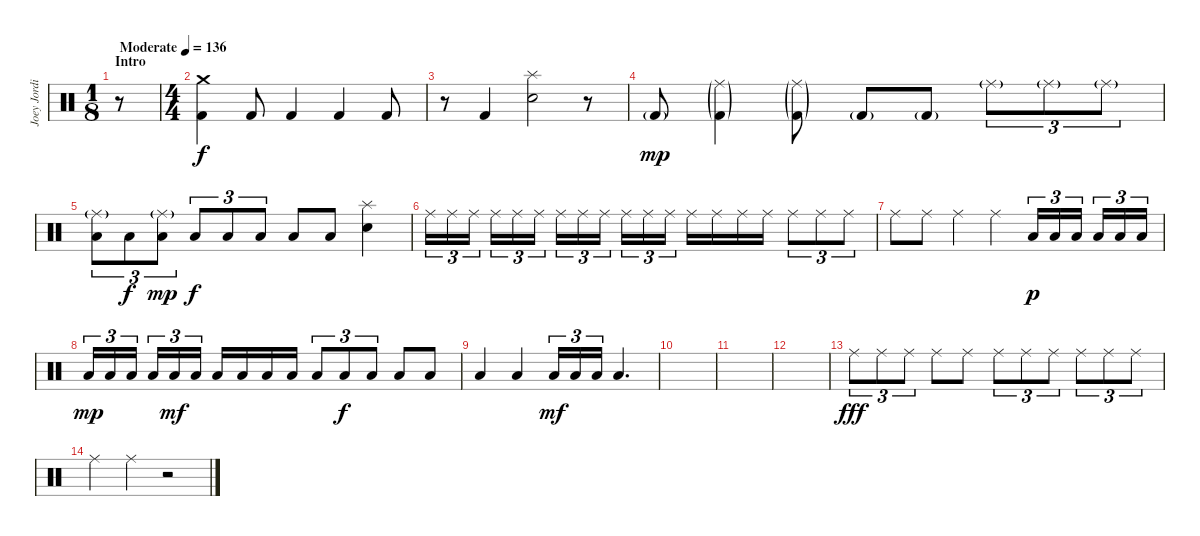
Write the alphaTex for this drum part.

\track ("Joey Jordison" "Joey Jordi") {instrument percussion}
\staff {score}
\articulation defaults
\ts (1 8)
\section ("" "Intro")
\tempo (136 "Moderate")
\clef neutral
\ks c
r.8{dy f} |
\ts (4 4)
("Crash medium (hit)" "Kick (hit) 2").4 "Kick (hit) 2".8 "Kick (hit) 2".4 "Kick (hit) 2".4 "Kick (hit) 2".8 |
r.8 "Kick (hit) 2".4 ("Splash (hit)" "Electric Snare (hit)").2 r.8 |
"Kick (hit) 2"{g}.8{dy mp} ("Ride (middle)"{g} "Kick (hit) 2"{g}).4 ("Ride (middle)"{g} "Kick (hit) 2"{g}).8 "Kick (hit) 2"{g}.8 "Kick (hit) 2"{g}.8 "Ride (middle)"{g}.8{tu (3 2)} "Ride (middle)"{g}.8{tu (3 2)} "Ride (middle)"{g}.8{tu (3 2)} |
("Ride (middle)"{g} "Low Floor Tom (hit)").8{tu (3 2)} "Low Floor Tom (hit)".8{tu (3 2) dy f} ("Ride (middle)"{g} "Low Floor Tom (hit)").8{tu (3 2) dy mp} "Low Floor Tom (hit)".8{tu (3 2) dy f} "Low Floor Tom (hit)".8{tu (3 2)} "Low Floor Tom (hit)".8{tu (3 2)} "Low Floor Tom (hit)".8 "Low Floor Tom (hit)".8 ("Splash (hit)" "Snare (hit) 2").4 |
"Ride (middle)".16{tu (3 2)} "Ride (middle)".16{tu (3 2)} "Ride (middle)".16{tu (3 2) beam splitsecondary} "Ride (middle)".16{tu (3 2)} "Ride (middle)".16{tu (3 2)} "Ride (middle)".16{tu (3 2)} "Ride (middle)".16{tu (3 2)} "Ride (middle)".16{tu (3 2)} "Ride (middle)".16{tu (3 2) beam splitsecondary} "Ride (middle)".16{tu (3 2)} "Ride (middle)".16{tu (3 2)} "Ride (middle)".16{tu (3 2)} "Ride (middle)".16 "Ride (middle)".16 "Ride (middle)".16 "Ride (middle)".16 "Ride (middle)".8{tu (3 2)} "Ride (middle)".8{tu (3 2)} "Ride (middle)".8{tu (3 2)} |
"Ride (middle)".8 "Ride (middle)".8 "Ride (middle)".4 "Ride (middle)".4 "Low Floor Tom (hit)".16{tu (3 2) dy p} "Low Floor Tom (hit)".16{tu (3 2)} "Low Floor Tom (hit)".16{tu (3 2) beam splitsecondary} "Low Floor Tom (hit)".16{tu (3 2)} "Low Floor Tom (hit)".16{tu (3 2)} "Low Floor Tom (hit)".16{tu (3 2)} |
"Low Floor Tom (hit)".16{tu (3 2) dy mp} "Low Floor Tom (hit)".16{tu (3 2)} "Low Floor Tom (hit)".16{tu (3 2) beam splitsecondary} "Low Floor Tom (hit)".16{tu (3 2)} "Low Floor Tom (hit)".16{tu (3 2) dy mf} "Low Floor Tom (hit)".16{tu (3 2)} "Low Floor Tom (hit)".16 "Low Floor Tom (hit)".16 "Low Floor Tom (hit)".16 "Low Floor Tom (hit)".16 "Low Floor Tom (hit)".8{tu (3 2)} "Low Floor Tom (hit)".8{tu (3 2) dy f} "Low Floor Tom (hit)".8{tu (3 2)} "Low Floor Tom (hit)".8 "Low Floor Tom (hit)".8 |
"Low Floor Tom (hit)".4 "Low Floor Tom (hit)".4 "Low Floor Tom (hit)".16{tu (3 2) dy mf} "Low Floor Tom (hit)".16{tu (3 2)} "Low Floor Tom (hit)".16{tu (3 2)} "Low Floor Tom (hit)".4{d} |
|
|
|
"Ride (middle)".8{tu (3 2) dy fff} "Ride (middle)".8{tu (3 2)} "Ride (middle)".8{tu (3 2)} "Ride (middle)".8 "Ride (middle)".8 "Ride (middle)".8{tu (3 2)} "Ride (middle)".8{tu (3 2)} "Ride (middle)".8{tu (3 2)} "Ride (middle)".8{tu (3 2)} "Ride (middle)".8{tu (3 2)} "Ride (middle)".8{tu (3 2)} |
"Ride (middle)".4 "Ride (middle)".4 r.2
